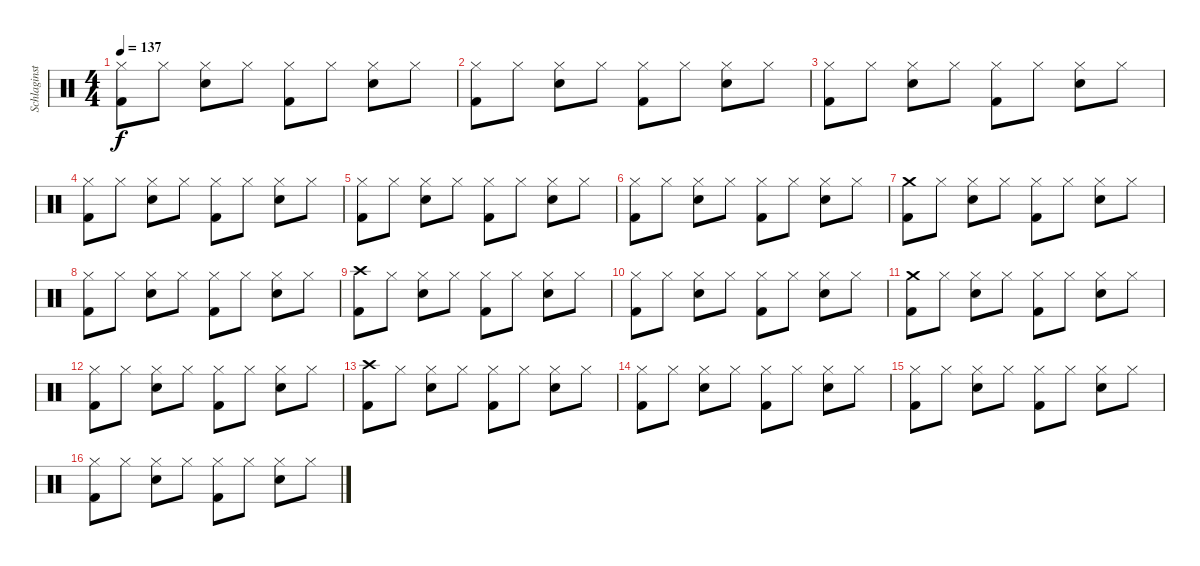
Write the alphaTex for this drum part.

\track ("Schlaginstrumente - Auswahl" "Schlaginst") {instrument percussion}
\staff {score}
\articulation defaults
\ts (4 4)
\tempo 137
\clef neutral
\ks c
("Hi-Hat (closed)" "Kick (hit) 2").8{dy f} "Hi-Hat (closed)".8 ("Hi-Hat (closed)" "Electric Snare (hit)").8 "Hi-Hat (closed)".8 ("Hi-Hat (closed)" "Kick (hit) 2").8 "Hi-Hat (closed)".8 ("Hi-Hat (closed)" "Electric Snare (hit)").8 "Hi-Hat (closed)".8 |
("Hi-Hat (closed)" "Kick (hit) 2").8 "Hi-Hat (closed)".8 ("Hi-Hat (closed)" "Electric Snare (hit)").8 "Hi-Hat (closed)".8 ("Hi-Hat (closed)" "Kick (hit) 2").8 "Hi-Hat (closed)".8 ("Hi-Hat (closed)" "Electric Snare (hit)").8 "Hi-Hat (closed)".8 |
("Hi-Hat (closed)" "Kick (hit) 2").8 "Hi-Hat (closed)".8 ("Hi-Hat (closed)" "Electric Snare (hit)").8 "Hi-Hat (closed)".8 ("Hi-Hat (closed)" "Kick (hit) 2").8 "Hi-Hat (closed)".8 ("Hi-Hat (closed)" "Electric Snare (hit)").8 "Hi-Hat (closed)".8 |
("Hi-Hat (closed)" "Kick (hit) 2").8 "Hi-Hat (closed)".8 ("Hi-Hat (closed)" "Electric Snare (hit)").8 "Hi-Hat (closed)".8 ("Hi-Hat (closed)" "Kick (hit) 2").8 "Hi-Hat (closed)".8 ("Hi-Hat (closed)" "Electric Snare (hit)").8 "Hi-Hat (closed)".8 |
("Hi-Hat (closed)" "Kick (hit) 2").8 "Hi-Hat (closed)".8 ("Hi-Hat (closed)" "Electric Snare (hit)").8 "Hi-Hat (closed)".8 ("Hi-Hat (closed)" "Kick (hit) 2").8 "Hi-Hat (closed)".8 ("Hi-Hat (closed)" "Electric Snare (hit)").8 "Hi-Hat (closed)".8 |
("Hi-Hat (closed)" "Kick (hit) 2").8 "Hi-Hat (closed)".8 ("Hi-Hat (closed)" "Electric Snare (hit)").8 "Hi-Hat (closed)".8 ("Hi-Hat (closed)" "Kick (hit) 2").8 "Hi-Hat (closed)".8 ("Hi-Hat (closed)" "Electric Snare (hit)").8 "Hi-Hat (closed)".8 |
("Crash medium (hit)" "Kick (hit) 2").8 "Hi-Hat (closed)".8 ("Hi-Hat (closed)" "Electric Snare (hit)").8 "Hi-Hat (closed)".8 ("Hi-Hat (closed)" "Kick (hit) 2").8 "Hi-Hat (closed)".8 ("Hi-Hat (closed)" "Electric Snare (hit)").8 "Hi-Hat (closed)".8 |
("Hi-Hat (closed)" "Kick (hit) 2").8 "Hi-Hat (closed)".8 ("Hi-Hat (closed)" "Electric Snare (hit)").8 "Hi-Hat (closed)".8 ("Hi-Hat (closed)" "Kick (hit) 2").8 "Hi-Hat (closed)".8 ("Hi-Hat (closed)" "Electric Snare (hit)").8 "Hi-Hat (closed)".8 |
("Crash high (hit)" "Kick (hit) 2").8 "Hi-Hat (closed)".8 ("Hi-Hat (closed)" "Electric Snare (hit)").8 "Hi-Hat (closed)".8 ("Hi-Hat (closed)" "Kick (hit) 2").8 "Hi-Hat (closed)".8 ("Hi-Hat (closed)" "Electric Snare (hit)").8 "Hi-Hat (closed)".8 |
("Hi-Hat (closed)" "Kick (hit) 2").8 "Hi-Hat (closed)".8 ("Hi-Hat (closed)" "Electric Snare (hit)").8 "Hi-Hat (closed)".8 ("Hi-Hat (closed)" "Kick (hit) 2").8 "Hi-Hat (closed)".8 ("Hi-Hat (closed)" "Electric Snare (hit)").8 "Hi-Hat (closed)".8 |
("Crash medium (hit)" "Kick (hit) 2").8 "Hi-Hat (closed)".8 ("Hi-Hat (closed)" "Electric Snare (hit)").8 "Hi-Hat (closed)".8 ("Hi-Hat (closed)" "Kick (hit) 2").8 "Hi-Hat (closed)".8 ("Hi-Hat (closed)" "Electric Snare (hit)").8 "Hi-Hat (closed)".8 |
("Hi-Hat (closed)" "Kick (hit) 2").8 "Hi-Hat (closed)".8 ("Hi-Hat (closed)" "Electric Snare (hit)").8 "Hi-Hat (closed)".8 ("Hi-Hat (closed)" "Kick (hit) 2").8 "Hi-Hat (closed)".8 ("Hi-Hat (closed)" "Electric Snare (hit)").8 "Hi-Hat (closed)".8 |
("Crash high (hit)" "Kick (hit) 2").8 "Hi-Hat (closed)".8 ("Hi-Hat (closed)" "Electric Snare (hit)").8 "Hi-Hat (closed)".8 ("Hi-Hat (closed)" "Kick (hit) 2").8 "Hi-Hat (closed)".8 ("Hi-Hat (closed)" "Electric Snare (hit)").8 "Hi-Hat (closed)".8 |
("Hi-Hat (closed)" "Kick (hit) 2").8 "Hi-Hat (closed)".8 ("Hi-Hat (closed)" "Electric Snare (hit)").8 "Hi-Hat (closed)".8 ("Hi-Hat (closed)" "Kick (hit) 2").8 "Hi-Hat (closed)".8 ("Hi-Hat (closed)" "Electric Snare (hit)").8 "Hi-Hat (closed)".8 |
("Hi-Hat (closed)" "Kick (hit) 2").8 "Hi-Hat (closed)".8 ("Hi-Hat (closed)" "Electric Snare (hit)").8 "Hi-Hat (closed)".8 ("Hi-Hat (closed)" "Kick (hit) 2").8 "Hi-Hat (closed)".8 ("Hi-Hat (closed)" "Electric Snare (hit)").8 "Hi-Hat (closed)".8 |
("Hi-Hat (closed)" "Kick (hit) 2").8 "Hi-Hat (closed)".8 ("Hi-Hat (closed)" "Electric Snare (hit)").8 "Hi-Hat (closed)".8 ("Hi-Hat (closed)" "Kick (hit) 2").8 "Hi-Hat (closed)".8 ("Hi-Hat (closed)" "Electric Snare (hit)").8 "Hi-Hat (closed)".8
